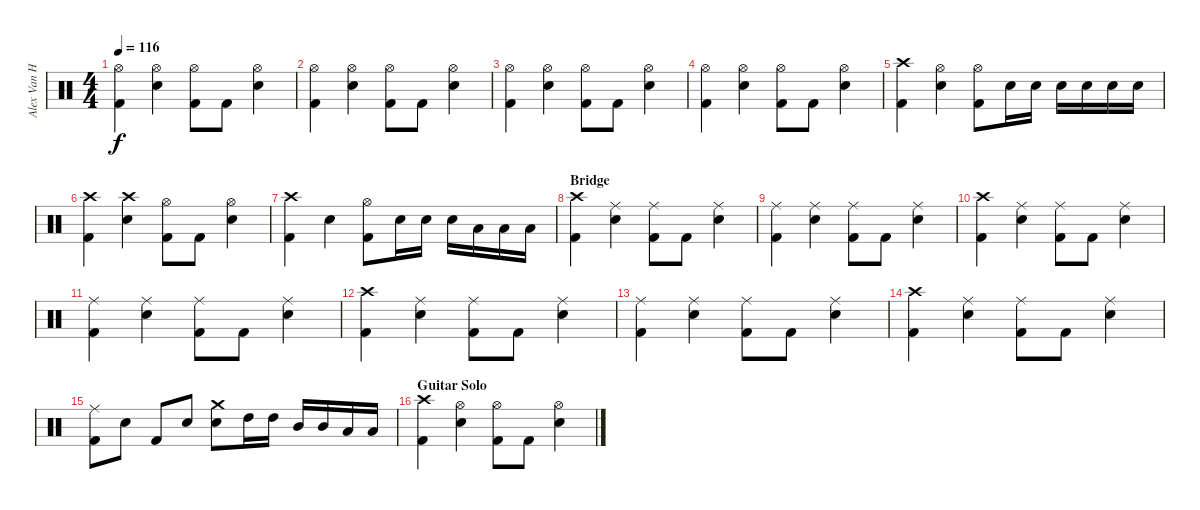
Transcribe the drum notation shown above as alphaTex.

\track ("Alex Van Halen" "Alex Van H") {instrument percussion}
\staff {score}
\articulation defaults
\ts (4 4)
\tempo 116
\clef neutral
\ks c
("Hi-Hat (open)" "Kick (hit) 2").4{dy f} ("Hi-Hat (open)" "Electric Snare (hit)").4 ("Hi-Hat (open)" "Kick (hit) 2").8 "Kick (hit) 2".8 ("Hi-Hat (open)" "Electric Snare (hit)").4 |
("Hi-Hat (open)" "Kick (hit) 2").4 ("Hi-Hat (open)" "Electric Snare (hit)").4 ("Hi-Hat (open)" "Kick (hit) 2").8 "Kick (hit) 2".8 ("Hi-Hat (open)" "Electric Snare (hit)").4 |
("Hi-Hat (open)" "Kick (hit) 2").4 ("Hi-Hat (open)" "Electric Snare (hit)").4 ("Hi-Hat (open)" "Kick (hit) 2").8 "Kick (hit) 2".8 ("Hi-Hat (open)" "Electric Snare (hit)").4 |
("Hi-Hat (open)" "Kick (hit) 2").4 ("Hi-Hat (open)" "Electric Snare (hit)").4 ("Hi-Hat (open)" "Kick (hit) 2").8 "Kick (hit) 2".8 ("Hi-Hat (open)" "Electric Snare (hit)").4 |
("Crash high (hit)" "Kick (hit) 2").4 ("Hi-Hat (open)" "Electric Snare (hit)").4 ("Hi-Hat (open)" "Kick (hit) 2").8 "Electric Snare (hit)".16 "Electric Snare (hit)".16 "Electric Snare (hit)".16 "Electric Snare (hit)".16 "Electric Snare (hit)".16 "Electric Snare (hit)".16 |
("Crash high (hit)" "Kick (hit) 2").4 ("Crash high (hit)" "Electric Snare (hit)").4 ("Hi-Hat (open)" "Kick (hit) 2").8 "Kick (hit) 2".8 ("Hi-Hat (open)" "Electric Snare (hit)").4 |
("Crash high (hit)" "Kick (hit) 2").4 "Electric Snare (hit)".4 ("Hi-Hat (open)" "Kick (hit) 2").8 "Electric Snare (hit)".16 "Electric Snare (hit)".16 "Electric Snare (hit)".16 "Low Tom (hit)".16 "Low Floor Tom (hit)".16 "Low Floor Tom (hit)".16 |
\section ("" "Bridge")
("Crash high (hit)" "Kick (hit) 2").4 ("Ride (middle)" "Electric Snare (hit)").4 ("Ride (middle)" "Kick (hit) 2").8 "Kick (hit) 2".8 ("Ride (middle)" "Electric Snare (hit)").4 |
("Ride (middle)" "Kick (hit) 2").4 ("Ride (middle)" "Electric Snare (hit)").4 ("Ride (middle)" "Kick (hit) 2").8 "Kick (hit) 2".8 ("Ride (middle)" "Electric Snare (hit)").4 |
("Crash high (hit)" "Kick (hit) 2").4 ("Ride (middle)" "Electric Snare (hit)").4 ("Ride (middle)" "Kick (hit) 2").8 "Kick (hit) 2".8 ("Ride (middle)" "Electric Snare (hit)").4 |
("Ride (middle)" "Kick (hit) 2").4 ("Ride (middle)" "Electric Snare (hit)").4 ("Ride (middle)" "Kick (hit) 2").8 "Kick (hit) 2".8 ("Ride (middle)" "Electric Snare (hit)").4 |
("Crash high (hit)" "Kick (hit) 2").4 ("Ride (middle)" "Electric Snare (hit)").4 ("Ride (middle)" "Kick (hit) 2").8 "Kick (hit) 2".8 ("Ride (middle)" "Electric Snare (hit)").4 |
("Ride (middle)" "Kick (hit) 2").4 ("Ride (middle)" "Electric Snare (hit)").4 ("Ride (middle)" "Kick (hit) 2").8 "Kick (hit) 2".8 ("Ride (middle)" "Electric Snare (hit)").4 |
("Crash high (hit)" "Kick (hit) 2").4 ("Ride (middle)" "Electric Snare (hit)").4 ("Ride (middle)" "Kick (hit) 2").8 "Kick (hit) 2".8 ("Ride (middle)" "Electric Snare (hit)").4 |
("Ride (middle)" "Kick (hit) 2").8 "Electric Snare (hit)".8 "Kick (hit) 2".8 "Electric Snare (hit)".8 ("Crash medium (hit)" "Electric Snare (hit)").8 "High Tom (hit)".16 "High Tom (hit)".16 "Mid Tom (hit)".16 "Mid Tom (hit)".16 "Low Tom (hit)".16 "Low Tom (hit)".16 |
\section ("" "Guitar Solo")
("Crash high (hit)" "Kick (hit) 2").4 ("Hi-Hat (open)" "Electric Snare (hit)").4 ("Hi-Hat (open)" "Kick (hit) 2").8 "Kick (hit) 2".8 ("Hi-Hat (open)" "Electric Snare (hit)").4
